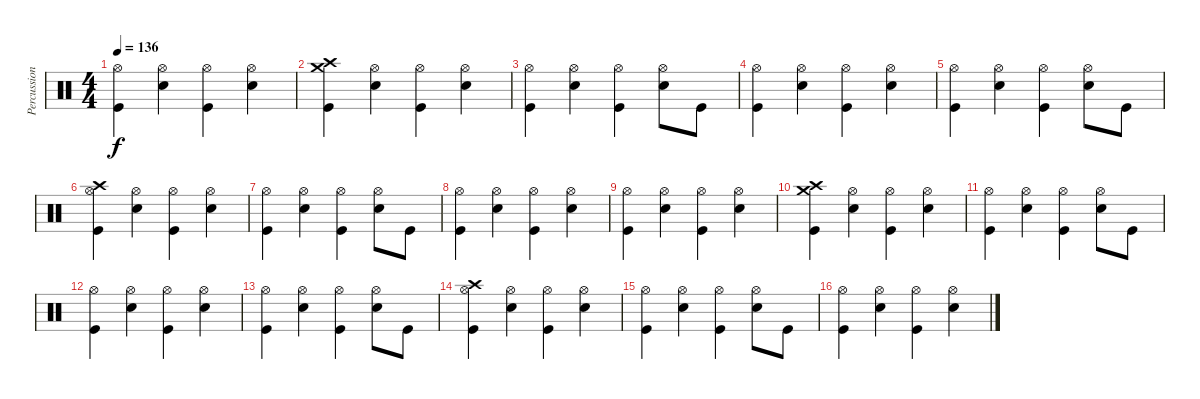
\track ("Percussion" "Percussion") {instrument percussion}
\staff {score}
\articulation defaults
\ts (4 4)
\tempo 136
\clef neutral
\ks c
("Hi-Hat (open)" "Kick (hit)").4{dy f} ("Hi-Hat (open)" "Electric Snare (hit)").4 ("Hi-Hat (open)" "Kick (hit)").4 ("Hi-Hat (open)" "Electric Snare (hit)").4 |
("Crash high (hit)" "Crash medium (hit)" "Kick (hit)").4 ("Hi-Hat (open)" "Electric Snare (hit)").4 ("Hi-Hat (open)" "Kick (hit)").4 ("Hi-Hat (open)" "Electric Snare (hit)").4 |
("Hi-Hat (open)" "Kick (hit)").4 ("Hi-Hat (open)" "Electric Snare (hit)").4 ("Hi-Hat (open)" "Kick (hit)").4 ("Hi-Hat (open)" "Electric Snare (hit)").8 "Kick (hit)".8 |
("Hi-Hat (open)" "Kick (hit)").4 ("Hi-Hat (open)" "Electric Snare (hit)").4 ("Hi-Hat (open)" "Kick (hit)").4 ("Hi-Hat (open)" "Electric Snare (hit)").4 |
("Hi-Hat (open)" "Kick (hit)").4 ("Hi-Hat (open)" "Electric Snare (hit)").4 ("Hi-Hat (open)" "Kick (hit)").4 ("Hi-Hat (open)" "Electric Snare (hit)").8 "Kick (hit)".8 |
("Crash high (hit)" "Hi-Hat (open)" "Kick (hit)").4 ("Hi-Hat (open)" "Electric Snare (hit)").4 ("Hi-Hat (open)" "Kick (hit)").4 ("Hi-Hat (open)" "Electric Snare (hit)").4 |
("Hi-Hat (open)" "Kick (hit)").4 ("Hi-Hat (open)" "Electric Snare (hit)").4 ("Hi-Hat (open)" "Kick (hit)").4 ("Hi-Hat (open)" "Electric Snare (hit)").8 "Kick (hit)".8 |
("Hi-Hat (open)" "Kick (hit)").4 ("Hi-Hat (open)" "Electric Snare (hit)").4 ("Hi-Hat (open)" "Kick (hit)").4 ("Hi-Hat (open)" "Electric Snare (hit)").4 |
("Hi-Hat (open)" "Kick (hit)").4 ("Hi-Hat (open)" "Electric Snare (hit)").4 ("Hi-Hat (open)" "Kick (hit)").4 ("Hi-Hat (open)" "Electric Snare (hit)").4 |
("Crash high (hit)" "Crash medium (hit)" "Kick (hit)").4 ("Hi-Hat (open)" "Electric Snare (hit)").4 ("Hi-Hat (open)" "Kick (hit)").4 ("Hi-Hat (open)" "Electric Snare (hit)").4 |
("Hi-Hat (open)" "Kick (hit)").4 ("Hi-Hat (open)" "Electric Snare (hit)").4 ("Hi-Hat (open)" "Kick (hit)").4 ("Hi-Hat (open)" "Electric Snare (hit)").8 "Kick (hit)".8 |
("Hi-Hat (open)" "Kick (hit)").4 ("Hi-Hat (open)" "Electric Snare (hit)").4 ("Hi-Hat (open)" "Kick (hit)").4 ("Hi-Hat (open)" "Electric Snare (hit)").4 |
("Hi-Hat (open)" "Kick (hit)").4 ("Hi-Hat (open)" "Electric Snare (hit)").4 ("Hi-Hat (open)" "Kick (hit)").4 ("Hi-Hat (open)" "Electric Snare (hit)").8 "Kick (hit)".8 |
("Crash high (hit)" "Hi-Hat (open)" "Kick (hit)").4 ("Hi-Hat (open)" "Electric Snare (hit)").4 ("Hi-Hat (open)" "Kick (hit)").4 ("Hi-Hat (open)" "Electric Snare (hit)").4 |
("Hi-Hat (open)" "Kick (hit)").4 ("Hi-Hat (open)" "Electric Snare (hit)").4 ("Hi-Hat (open)" "Kick (hit)").4 ("Hi-Hat (open)" "Electric Snare (hit)").8 "Kick (hit)".8 |
("Hi-Hat (open)" "Kick (hit)").4 ("Hi-Hat (open)" "Electric Snare (hit)").4 ("Hi-Hat (open)" "Kick (hit)").4 ("Hi-Hat (open)" "Electric Snare (hit)").4
